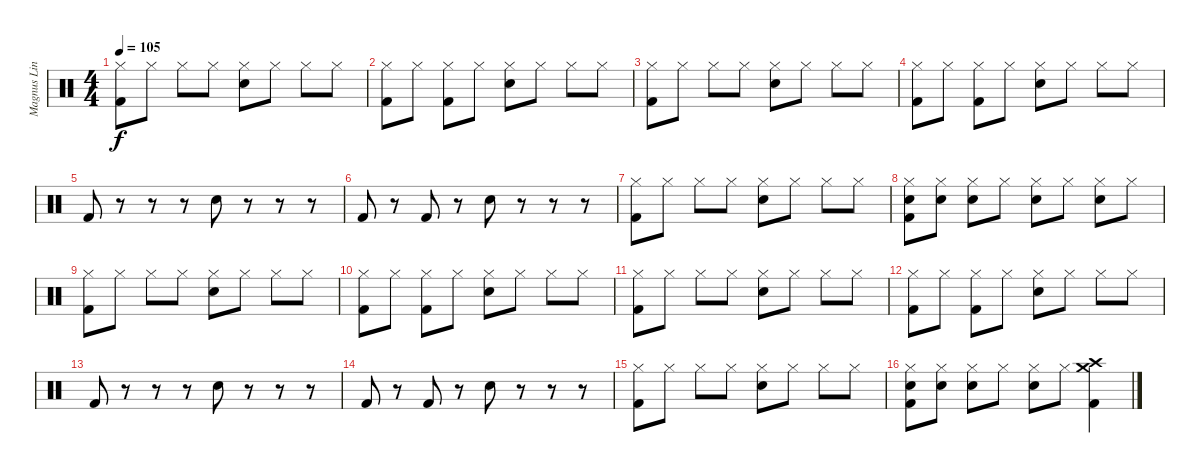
\track ("Magnus Lindberg" "Magnus Lin") {instrument percussion}
\staff {score}
\articulation defaults
\ts (4 4)
\tempo 105
\clef neutral
\ks c
("Hi-Hat (closed)" "Kick (hit) 2").8{dy f} "Hi-Hat (closed)".8 "Hi-Hat (closed)".8 "Hi-Hat (closed)".8 ("Hi-Hat (closed)" "Snare (hit) 2").8 "Hi-Hat (closed)".8 "Hi-Hat (closed)".8 "Hi-Hat (closed)".8 |
("Hi-Hat (closed)" "Kick (hit) 2").8 "Hi-Hat (closed)".8 ("Hi-Hat (closed)" "Kick (hit) 2").8 "Hi-Hat (closed)".8 ("Hi-Hat (closed)" "Snare (hit) 2").8 "Hi-Hat (closed)".8 "Hi-Hat (closed)".8 "Hi-Hat (closed)".8 |
("Hi-Hat (closed)" "Kick (hit) 2").8 "Hi-Hat (closed)".8 "Hi-Hat (closed)".8 "Hi-Hat (closed)".8 ("Hi-Hat (closed)" "Snare (hit) 2").8 "Hi-Hat (closed)".8 "Hi-Hat (closed)".8 "Hi-Hat (closed)".8 |
("Hi-Hat (closed)" "Kick (hit) 2").8 "Hi-Hat (closed)".8 ("Hi-Hat (closed)" "Kick (hit) 2").8 "Hi-Hat (closed)".8 ("Hi-Hat (closed)" "Snare (hit) 2").8 "Hi-Hat (closed)".8 "Hi-Hat (closed)".8 "Hi-Hat (closed)".8 |
"Kick (hit) 2".8 r.8 r.8 r.8 "Snare (hit) 2".8 r.8 r.8 r.8 |
"Kick (hit) 2".8 r.8 "Kick (hit) 2".8 r.8 "Snare (hit) 2".8 r.8 r.8 r.8 |
("Hi-Hat (closed)" "Kick (hit) 2").8 "Hi-Hat (closed)".8 "Hi-Hat (closed)".8 "Hi-Hat (closed)".8 ("Hi-Hat (closed)" "Snare (hit) 2").8 "Hi-Hat (closed)".8 "Hi-Hat (closed)".8 "Hi-Hat (closed)".8 |
("Hi-Hat (closed)" "Snare (hit) 2" "Kick (hit) 2").8 ("Hi-Hat (closed)" "Snare (hit) 2").8 ("Hi-Hat (closed)" "Snare (hit) 2").8 "Hi-Hat (closed)".8 ("Hi-Hat (closed)" "Snare (hit) 2").8 "Hi-Hat (closed)".8 ("Hi-Hat (closed)" "Snare (hit) 2").8 "Hi-Hat (closed)".8 |
("Hi-Hat (closed)" "Kick (hit) 2").8 "Hi-Hat (closed)".8 "Hi-Hat (closed)".8 "Hi-Hat (closed)".8 ("Hi-Hat (closed)" "Snare (hit) 2").8 "Hi-Hat (closed)".8 "Hi-Hat (closed)".8 "Hi-Hat (closed)".8 |
("Hi-Hat (closed)" "Kick (hit) 2").8 "Hi-Hat (closed)".8 ("Hi-Hat (closed)" "Kick (hit) 2").8 "Hi-Hat (closed)".8 ("Hi-Hat (closed)" "Snare (hit) 2").8 "Hi-Hat (closed)".8 "Hi-Hat (closed)".8 "Hi-Hat (closed)".8 |
("Hi-Hat (closed)" "Kick (hit) 2").8 "Hi-Hat (closed)".8 "Hi-Hat (closed)".8 "Hi-Hat (closed)".8 ("Hi-Hat (closed)" "Snare (hit) 2").8 "Hi-Hat (closed)".8 "Hi-Hat (closed)".8 "Hi-Hat (closed)".8 |
("Hi-Hat (closed)" "Kick (hit) 2").8 "Hi-Hat (closed)".8 ("Hi-Hat (closed)" "Kick (hit) 2").8 "Hi-Hat (closed)".8 ("Hi-Hat (closed)" "Snare (hit) 2").8 "Hi-Hat (closed)".8 "Hi-Hat (closed)".8 "Hi-Hat (closed)".8 |
"Kick (hit) 2".8 r.8 r.8 r.8 "Snare (hit) 2".8 r.8 r.8 r.8 |
"Kick (hit) 2".8 r.8 "Kick (hit) 2".8 r.8 "Snare (hit) 2".8 r.8 r.8 r.8 |
("Hi-Hat (closed)" "Kick (hit) 2").8 "Hi-Hat (closed)".8 "Hi-Hat (closed)".8 "Hi-Hat (closed)".8 ("Hi-Hat (closed)" "Snare (hit) 2").8 "Hi-Hat (closed)".8 "Hi-Hat (closed)".8 "Hi-Hat (closed)".8 |
("Hi-Hat (closed)" "Snare (hit) 2" "Kick (hit) 2").8 ("Hi-Hat (closed)" "Snare (hit) 2").8 ("Hi-Hat (closed)" "Snare (hit) 2").8 "Hi-Hat (closed)".8 ("Hi-Hat (closed)" "Snare (hit) 2").8 "Hi-Hat (closed)".8 ("Crash medium (hit)" "Crash high (hit)" "Kick (hit) 2").4
